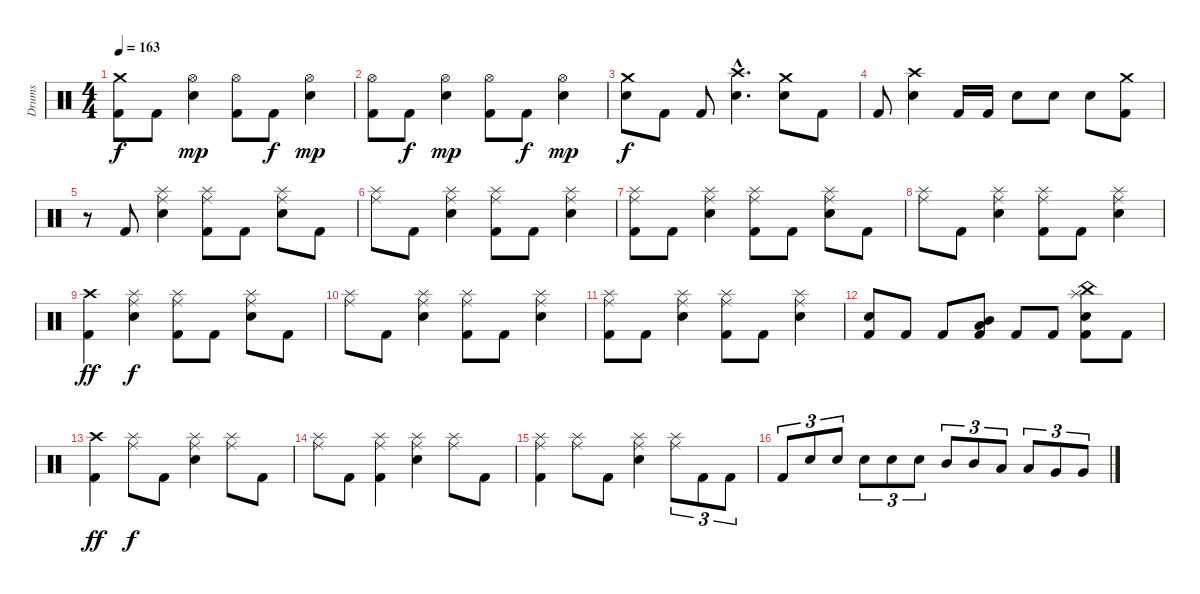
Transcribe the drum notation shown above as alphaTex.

\track ("Drums" "Drums") {instrument percussion}
\staff {score}
\articulation defaults
\ts (4 4)
\tempo 163
\clef neutral
\ks c
("Crash medium (hit)" "Kick (hit) 2").8{dy f} "Kick (hit) 2".8 ("Hi-Hat (open)" "Electric Snare (hit)").4{dy mp} ("Hi-Hat (open)" "Kick (hit) 2").8 "Kick (hit) 2".8{dy f} ("Hi-Hat (open)" "Electric Snare (hit)").4{dy mp} |
("Hi-Hat (open)" "Kick (hit) 2").8 "Kick (hit) 2".8{dy f} ("Hi-Hat (open)" "Electric Snare (hit)").4{dy mp} ("Hi-Hat (open)" "Kick (hit) 2").8 "Kick (hit) 2".8{dy f} ("Hi-Hat (open)" "Electric Snare (hit)").4{dy mp} |
("Crash medium (hit)" "Electric Snare (hit)").8{dy f} "Kick (hit) 2".8 "Kick (hit) 2".8 ("Crash high (hit)"{hac} "Electric Snare (hit)"{hac}).4{d} ("Crash medium (hit)" "Electric Snare (hit)").8 "Kick (hit) 2".8 |
"Kick (hit) 2".8 ("Crash high (hit)" "Electric Snare (hit)").4 "Kick (hit) 2".16 "Kick (hit) 2".16 "Electric Snare (hit)".8 "Electric Snare (hit)".8 "Electric Snare (hit)".8 ("Crash medium (hit)" "Kick (hit) 2").8 |
r.8 "Kick (hit) 2".8 ("Splash (hit)" "Ride (middle)" "Electric Snare (hit)").4 ("Splash (hit)" "Ride (middle)" "Kick (hit) 2").8 "Kick (hit) 2".8 ("Splash (hit)" "Ride (middle)" "Electric Snare (hit)").8 "Kick (hit) 2".8 |
("Splash (hit)" "Ride (middle)").8 "Kick (hit) 2".8 ("Splash (hit)" "Ride (middle)" "Electric Snare (hit)").4 ("Splash (hit)" "Ride (middle)" "Kick (hit) 2").8 "Kick (hit) 2".8 ("Splash (hit)" "Ride (middle)" "Electric Snare (hit)").4 |
("Splash (hit)" "Ride (middle)" "Kick (hit) 2").8 "Kick (hit) 2".8 ("Splash (hit)" "Ride (middle)" "Electric Snare (hit)").4 ("Splash (hit)" "Ride (middle)" "Kick (hit) 2").8 "Kick (hit) 2".8 ("Splash (hit)" "Ride (middle)" "Electric Snare (hit)").8 "Kick (hit) 2".8 |
("Splash (hit)" "Ride (middle)").8 "Kick (hit) 2".8 ("Splash (hit)" "Ride (middle)" "Electric Snare (hit)").4 ("Splash (hit)" "Ride (middle)" "Kick (hit) 2").8 "Kick (hit) 2".8 ("Splash (hit)" "Ride (middle)" "Electric Snare (hit)").4 |
("Crash high (hit)" "Kick (hit) 2").4{dy ff} ("Splash (hit)" "Ride (middle)" "Electric Snare (hit)").4{dy f} ("Splash (hit)" "Ride (middle)" "Kick (hit) 2").8 "Kick (hit) 2".8 ("Splash (hit)" "Ride (middle)" "Electric Snare (hit)").8 "Kick (hit) 2".8 |
("Splash (hit)" "Ride (middle)").8 "Kick (hit) 2".8 ("Splash (hit)" "Ride (middle)" "Electric Snare (hit)").4 ("Splash (hit)" "Ride (middle)" "Kick (hit) 2").8 "Kick (hit) 2".8 ("Splash (hit)" "Ride (middle)" "Electric Snare (hit)").4 |
("Splash (hit)" "Ride (middle)" "Kick (hit) 2").8 "Kick (hit) 2".8 ("Splash (hit)" "Ride (middle)" "Electric Snare (hit)").4 ("Splash (hit)" "Ride (middle)" "Kick (hit) 2").8 "Kick (hit) 2".8 ("Splash (hit)" "Ride (middle)" "Electric Snare (hit)").4 |
("Electric Snare (hit)" "Kick (hit) 2").8 "Kick (hit) 2".8 "Kick (hit) 2".8 ("Mid Tom (hit)" "Low Tom (hit)" "Kick (hit) 2").8 "Kick (hit) 2".8 "Kick (hit) 2".8 ("China (hit)" "Splash (hit)" "Electric Snare (hit)" "Kick (hit) 2").8 "Kick (hit) 2".8 |
("Crash high (hit)" "Kick (hit) 2").4{dy ff} ("Splash (hit)" "Ride (middle)").8{dy f} "Kick (hit) 2".8 ("Splash (hit)" "Ride (middle)" "Electric Snare (hit)").4 ("Splash (hit)" "Ride (middle)").8 "Kick (hit) 2".8 |
("Splash (hit)" "Ride (middle)").8 "Kick (hit) 2".8 ("Splash (hit)" "Ride (middle)" "Kick (hit) 2").4 ("Splash (hit)" "Ride (middle)" "Electric Snare (hit)").4 ("Splash (hit)" "Ride (middle)").8 "Kick (hit) 2".8 |
("Splash (hit)" "Ride (middle)" "Kick (hit) 2").4 ("Splash (hit)" "Ride (middle)").8 "Kick (hit) 2".8 ("Splash (hit)" "Ride (middle)" "Electric Snare (hit)").4 ("Splash (hit)" "Ride (middle)").8{tu (3 2)} "Kick (hit) 2".8{tu (3 2)} "Kick (hit) 2".8{tu (3 2)} |
"Kick (hit) 2".8{tu (3 2)} "Electric Snare (hit)".8{tu (3 2)} "Electric Snare (hit)".8{tu (3 2)} "Electric Snare (hit)".8{tu (3 2)} "Electric Snare (hit)".8{tu (3 2)} "Electric Snare (hit)".8{tu (3 2)} "Mid Tom (hit)".8{tu (3 2)} "Mid Tom (hit)".8{tu (3 2)} "Low Tom (hit)".8{tu (3 2)} "Low Tom (hit)".8{tu (3 2)} "Very Low Tom (hit)".8{tu (3 2)} "Very Low Tom (hit)".8{tu (3 2)}
